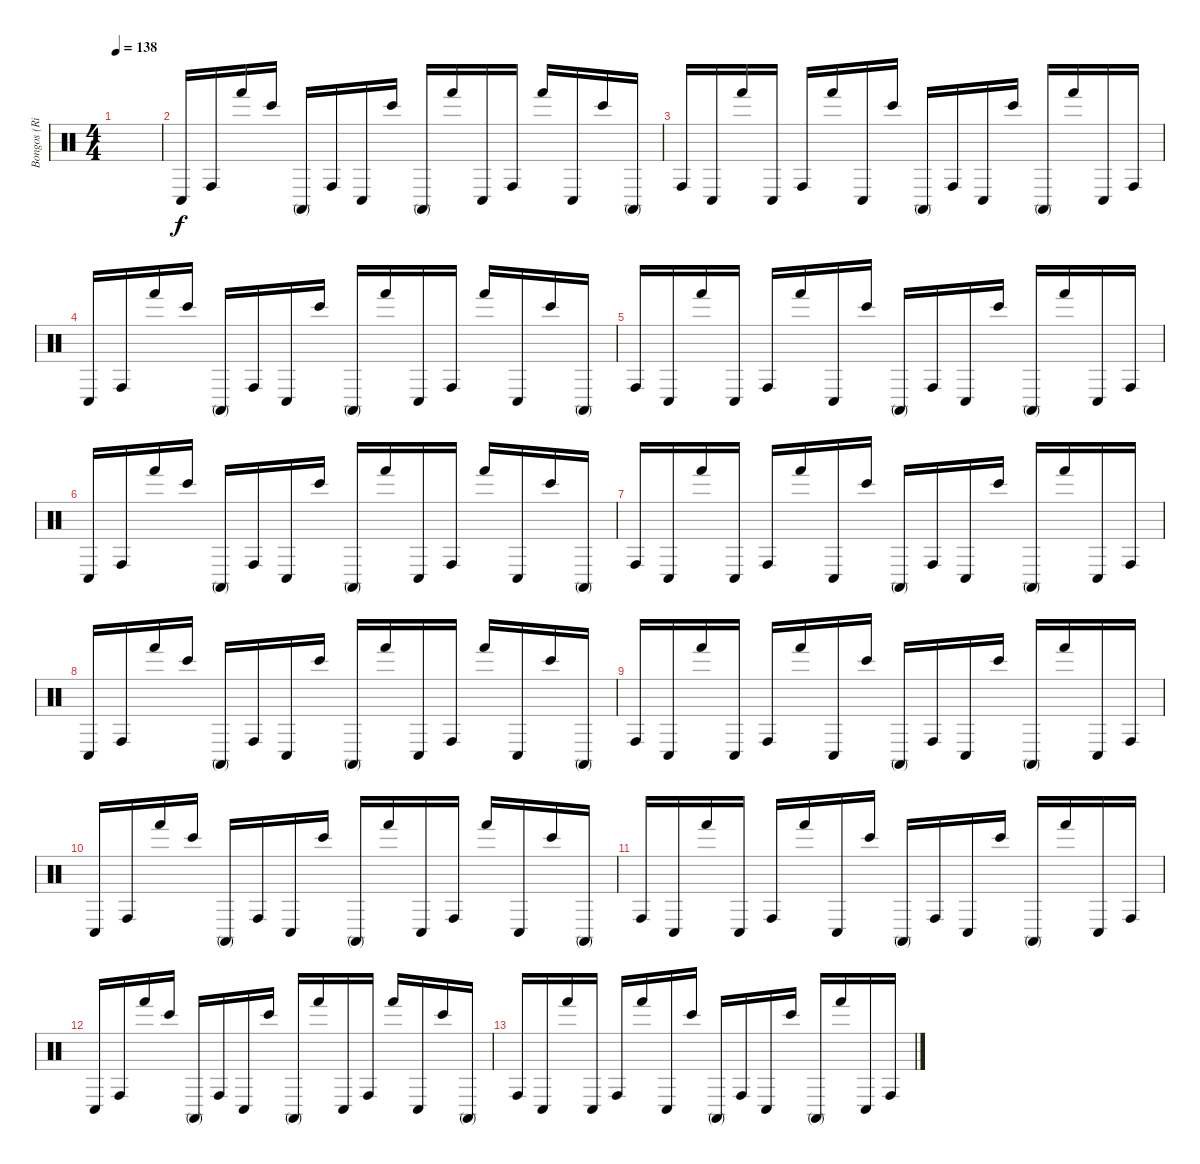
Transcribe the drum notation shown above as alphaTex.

\track ("Bongos (Ringo Starr)" "Bongos (Ri") {instrument percussion}
\staff {score}
\articulation defaults
\ts (4 4)
\tempo 138
\clef neutral
\ks c
|
"Conga low (hit)".16 "Conga high (hit)".16 "Hand (hit)".16 "Bongo High (hit)".16 "Conga high (mute)".16 "Conga high (hit)".16 "Conga low (hit)".16 "Bongo High (hit)".16 "Conga high (mute)".16 "Hand (hit)".16 "Conga low (hit)".16 "Conga high (hit)".16 "Hand (hit)".16 "Conga low (hit)".16 "Bongo High (hit)".16 "Conga high (mute)".16 |
"Conga high (hit)".16 "Conga low (hit)".16 "Hand (hit)".16 "Conga low (hit)".16 "Conga high (hit)".16 "Hand (hit)".16 "Conga low (hit)".16 "Bongo High (hit)".16 "Conga high (mute)".16 "Conga high (hit)".16 "Conga low (hit)".16 "Bongo High (hit)".16 "Conga high (mute)".16 "Hand (hit)".16 "Conga low (hit)".16 "Conga high (hit)".16 |
"Conga low (hit)".16 "Conga high (hit)".16 "Hand (hit)".16 "Bongo High (hit)".16 "Conga high (mute)".16 "Conga high (hit)".16 "Conga low (hit)".16 "Bongo High (hit)".16 "Conga high (mute)".16 "Hand (hit)".16 "Conga low (hit)".16 "Conga high (hit)".16 "Hand (hit)".16 "Conga low (hit)".16 "Bongo High (hit)".16 "Conga high (mute)".16 |
"Conga high (hit)".16 "Conga low (hit)".16 "Hand (hit)".16 "Conga low (hit)".16 "Conga high (hit)".16 "Hand (hit)".16 "Conga low (hit)".16 "Bongo High (hit)".16 "Conga high (mute)".16 "Conga high (hit)".16 "Conga low (hit)".16 "Bongo High (hit)".16 "Conga high (mute)".16 "Hand (hit)".16 "Conga low (hit)".16 "Conga high (hit)".16 |
"Conga low (hit)".16 "Conga high (hit)".16 "Hand (hit)".16 "Bongo High (hit)".16 "Conga high (mute)".16 "Conga high (hit)".16 "Conga low (hit)".16 "Bongo High (hit)".16 "Conga high (mute)".16 "Hand (hit)".16 "Conga low (hit)".16 "Conga high (hit)".16 "Hand (hit)".16 "Conga low (hit)".16 "Bongo High (hit)".16 "Conga high (mute)".16 |
"Conga high (hit)".16 "Conga low (hit)".16 "Hand (hit)".16 "Conga low (hit)".16 "Conga high (hit)".16 "Hand (hit)".16 "Conga low (hit)".16 "Bongo High (hit)".16 "Conga high (mute)".16 "Conga high (hit)".16 "Conga low (hit)".16 "Bongo High (hit)".16 "Conga high (mute)".16 "Hand (hit)".16 "Conga low (hit)".16 "Conga high (hit)".16 |
"Conga low (hit)".16 "Conga high (hit)".16 "Hand (hit)".16 "Bongo High (hit)".16 "Conga high (mute)".16 "Conga high (hit)".16 "Conga low (hit)".16 "Bongo High (hit)".16 "Conga high (mute)".16 "Hand (hit)".16 "Conga low (hit)".16 "Conga high (hit)".16 "Hand (hit)".16 "Conga low (hit)".16 "Bongo High (hit)".16 "Conga high (mute)".16 |
"Conga high (hit)".16 "Conga low (hit)".16 "Hand (hit)".16 "Conga low (hit)".16 "Conga high (hit)".16 "Hand (hit)".16 "Conga low (hit)".16 "Bongo High (hit)".16 "Conga high (mute)".16 "Conga high (hit)".16 "Conga low (hit)".16 "Bongo High (hit)".16 "Conga high (mute)".16 "Hand (hit)".16 "Conga low (hit)".16 "Conga high (hit)".16 |
"Conga low (hit)".16 "Conga high (hit)".16 "Hand (hit)".16 "Bongo High (hit)".16 "Conga high (mute)".16 "Conga high (hit)".16 "Conga low (hit)".16 "Bongo High (hit)".16 "Conga high (mute)".16 "Hand (hit)".16 "Conga low (hit)".16 "Conga high (hit)".16 "Hand (hit)".16 "Conga low (hit)".16 "Bongo High (hit)".16 "Conga high (mute)".16 |
"Conga high (hit)".16 "Conga low (hit)".16 "Hand (hit)".16 "Conga low (hit)".16 "Conga high (hit)".16 "Hand (hit)".16 "Conga low (hit)".16 "Bongo High (hit)".16 "Conga high (mute)".16 "Conga high (hit)".16 "Conga low (hit)".16 "Bongo High (hit)".16 "Conga high (mute)".16 "Hand (hit)".16 "Conga low (hit)".16 "Conga high (hit)".16 |
"Conga low (hit)".16 "Conga high (hit)".16 "Hand (hit)".16 "Bongo High (hit)".16 "Conga high (mute)".16 "Conga high (hit)".16 "Conga low (hit)".16 "Bongo High (hit)".16 "Conga high (mute)".16 "Hand (hit)".16 "Conga low (hit)".16 "Conga high (hit)".16 "Hand (hit)".16 "Conga low (hit)".16 "Bongo High (hit)".16 "Conga high (mute)".16 |
"Conga high (hit)".16 "Conga low (hit)".16 "Hand (hit)".16 "Conga low (hit)".16 "Conga high (hit)".16 "Hand (hit)".16 "Conga low (hit)".16 "Bongo High (hit)".16 "Conga high (mute)".16 "Conga high (hit)".16 "Conga low (hit)".16 "Bongo High (hit)".16 "Conga high (mute)".16 "Hand (hit)".16 "Conga low (hit)".16 "Conga high (hit)".16
